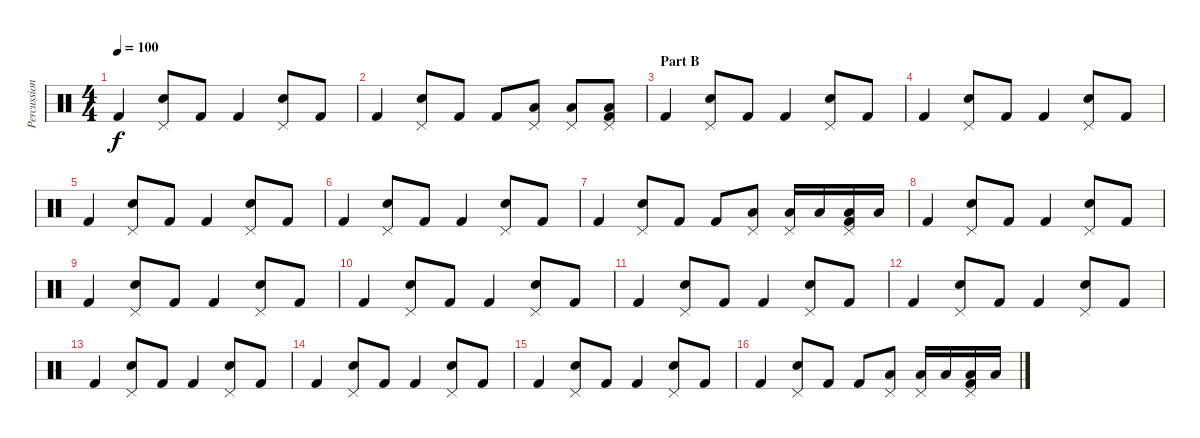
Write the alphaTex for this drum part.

\track ("Percussion" "Percussion") {instrument percussion}
\staff {score}
\articulation defaults
\ts (4 4)
\tempo 100
\clef neutral
\ks c "Kick (hit) 2".4{dy f}
("Pedal Hi-Hat (hit)" "Electric Snare (hit)").8 "Kick (hit) 2".8 "Kick (hit) 2".4 ("Pedal Hi-Hat (hit)" "Electric Snare (hit)").8 "Kick (hit) 2".8 |
"Kick (hit) 2".4 ("Pedal Hi-Hat (hit)" "Electric Snare (hit)").8 "Kick (hit) 2".8 "Kick (hit) 2".8 ("Pedal Hi-Hat (hit)" "Low Floor Tom (hit)").8 ("Pedal Hi-Hat (hit)" "Low Floor Tom (hit)").8 ("Pedal Hi-Hat (hit)" "Low Floor Tom (hit)" "Kick (hit) 2").8 |
\section ("" "Part B")
"Kick (hit) 2".4 ("Pedal Hi-Hat (hit)" "Electric Snare (hit)").8 "Kick (hit) 2".8 "Kick (hit) 2".4 ("Pedal Hi-Hat (hit)" "Electric Snare (hit)").8 "Kick (hit) 2".8 |
"Kick (hit) 2".4 ("Pedal Hi-Hat (hit)" "Electric Snare (hit)").8 "Kick (hit) 2".8 "Kick (hit) 2".4 ("Pedal Hi-Hat (hit)" "Electric Snare (hit)").8 "Kick (hit) 2".8 |
"Kick (hit) 2".4 ("Pedal Hi-Hat (hit)" "Electric Snare (hit)").8 "Kick (hit) 2".8 "Kick (hit) 2".4 ("Pedal Hi-Hat (hit)" "Electric Snare (hit)").8 "Kick (hit) 2".8 |
"Kick (hit) 2".4 ("Pedal Hi-Hat (hit)" "Electric Snare (hit)").8 "Kick (hit) 2".8 "Kick (hit) 2".4 ("Pedal Hi-Hat (hit)" "Electric Snare (hit)").8 "Kick (hit) 2".8 |
"Kick (hit) 2".4 ("Pedal Hi-Hat (hit)" "Electric Snare (hit)").8 "Kick (hit) 2".8 "Kick (hit) 2".8 ("Pedal Hi-Hat (hit)" "Low Floor Tom (hit)").8 ("Pedal Hi-Hat (hit)" "Low Floor Tom (hit)").16 "Low Floor Tom (hit)".16 ("Pedal Hi-Hat (hit)" "Low Floor Tom (hit)" "Kick (hit) 2").16 "Low Floor Tom (hit)".16 |
"Kick (hit) 2".4 ("Pedal Hi-Hat (hit)" "Electric Snare (hit)").8 "Kick (hit) 2".8 "Kick (hit) 2".4 ("Pedal Hi-Hat (hit)" "Electric Snare (hit)").8 "Kick (hit) 2".8 |
"Kick (hit) 2".4 ("Pedal Hi-Hat (hit)" "Electric Snare (hit)").8 "Kick (hit) 2".8 "Kick (hit) 2".4 ("Pedal Hi-Hat (hit)" "Electric Snare (hit)").8 "Kick (hit) 2".8 |
"Kick (hit) 2".4 ("Pedal Hi-Hat (hit)" "Electric Snare (hit)").8 "Kick (hit) 2".8 "Kick (hit) 2".4 ("Pedal Hi-Hat (hit)" "Electric Snare (hit)").8 "Kick (hit) 2".8 |
"Kick (hit) 2".4 ("Pedal Hi-Hat (hit)" "Electric Snare (hit)").8 "Kick (hit) 2".8 "Kick (hit) 2".4 ("Pedal Hi-Hat (hit)" "Electric Snare (hit)").8 "Kick (hit) 2".8 |
"Kick (hit) 2".4 ("Pedal Hi-Hat (hit)" "Electric Snare (hit)").8 "Kick (hit) 2".8 "Kick (hit) 2".4 ("Pedal Hi-Hat (hit)" "Electric Snare (hit)").8 "Kick (hit) 2".8 |
"Kick (hit) 2".4 ("Pedal Hi-Hat (hit)" "Electric Snare (hit)").8 "Kick (hit) 2".8 "Kick (hit) 2".4 ("Pedal Hi-Hat (hit)" "Electric Snare (hit)").8 "Kick (hit) 2".8 |
"Kick (hit) 2".4 ("Pedal Hi-Hat (hit)" "Electric Snare (hit)").8 "Kick (hit) 2".8 "Kick (hit) 2".4 ("Pedal Hi-Hat (hit)" "Electric Snare (hit)").8 "Kick (hit) 2".8 |
"Kick (hit) 2".4 ("Pedal Hi-Hat (hit)" "Electric Snare (hit)").8 "Kick (hit) 2".8 "Kick (hit) 2".4 ("Pedal Hi-Hat (hit)" "Electric Snare (hit)").8 "Kick (hit) 2".8 |
"Kick (hit) 2".4 ("Pedal Hi-Hat (hit)" "Electric Snare (hit)").8 "Kick (hit) 2".8 "Kick (hit) 2".8 ("Pedal Hi-Hat (hit)" "Low Floor Tom (hit)").8 ("Pedal Hi-Hat (hit)" "Low Floor Tom (hit)").16 "Low Floor Tom (hit)".16 ("Pedal Hi-Hat (hit)" "Low Floor Tom (hit)" "Kick (hit) 2").16 "Low Floor Tom (hit)".16
